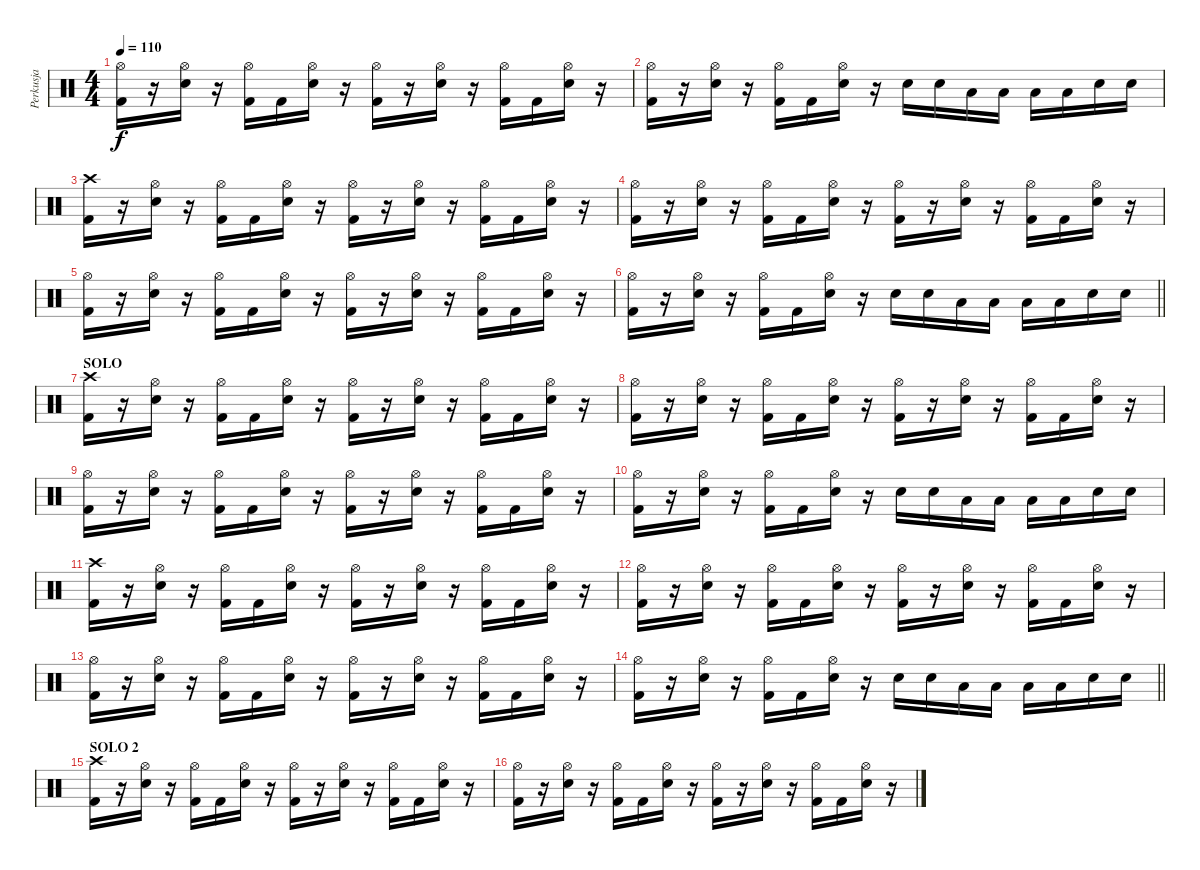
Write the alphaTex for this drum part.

\track ("Perkusja" "Perkusja") {instrument percussion}
\staff {score}
\articulation defaults
\ts (4 4)
\tempo 110
\clef neutral
\ks c
("Hi-Hat (open)" "Kick (hit) 2").16{dy f} r.16 ("Hi-Hat (open)" "Snare (hit) 2").16 r.16 ("Hi-Hat (open)" "Kick (hit) 2").16 "Kick (hit) 2".16 ("Hi-Hat (open)" "Snare (hit) 2").16 r.16 ("Hi-Hat (open)" "Kick (hit) 2").16 r.16 ("Hi-Hat (open)" "Snare (hit) 2").16 r.16 ("Hi-Hat (open)" "Kick (hit) 2").16 "Kick (hit) 2".16 ("Hi-Hat (open)" "Snare (hit) 2").16 r.16 |
("Hi-Hat (open)" "Kick (hit) 2").16 r.16 ("Hi-Hat (open)" "Snare (hit) 2").16 r.16 ("Hi-Hat (open)" "Kick (hit) 2").16 "Kick (hit) 2".16 ("Hi-Hat (open)" "Snare (hit) 2").16 r.16 "Snare (hit) 2".16 "Snare (hit) 2".16 "Low Tom (hit)".16 "Low Tom (hit)".16 "Low Tom (hit)".16 "Low Tom (hit)".16 "Snare (hit) 2".16 "Snare (hit) 2".16 |
("Crash high (hit)" "Kick (hit) 2").16 r.16 ("Hi-Hat (open)" "Snare (hit) 2").16 r.16 ("Hi-Hat (open)" "Kick (hit) 2").16 "Kick (hit) 2".16 ("Hi-Hat (open)" "Snare (hit) 2").16 r.16 ("Hi-Hat (open)" "Kick (hit) 2").16 r.16 ("Hi-Hat (open)" "Snare (hit) 2").16 r.16 ("Hi-Hat (open)" "Kick (hit) 2").16 "Kick (hit) 2".16 ("Hi-Hat (open)" "Snare (hit) 2").16 r.16 |
("Hi-Hat (open)" "Kick (hit) 2").16 r.16 ("Hi-Hat (open)" "Snare (hit) 2").16 r.16 ("Hi-Hat (open)" "Kick (hit) 2").16 "Kick (hit) 2".16 ("Hi-Hat (open)" "Snare (hit) 2").16 r.16 ("Hi-Hat (open)" "Kick (hit) 2").16 r.16 ("Hi-Hat (open)" "Snare (hit) 2").16 r.16 ("Hi-Hat (open)" "Kick (hit) 2").16 "Kick (hit) 2".16 ("Hi-Hat (open)" "Snare (hit) 2").16 r.16 |
("Hi-Hat (open)" "Kick (hit) 2").16 r.16 ("Hi-Hat (open)" "Snare (hit) 2").16 r.16 ("Hi-Hat (open)" "Kick (hit) 2").16 "Kick (hit) 2".16 ("Hi-Hat (open)" "Snare (hit) 2").16 r.16 ("Hi-Hat (open)" "Kick (hit) 2").16 r.16 ("Hi-Hat (open)" "Snare (hit) 2").16 r.16 ("Hi-Hat (open)" "Kick (hit) 2").16 "Kick (hit) 2".16 ("Hi-Hat (open)" "Snare (hit) 2").16 r.16 |
\barLineRight lightlight
("Hi-Hat (open)" "Kick (hit) 2").16 r.16 ("Hi-Hat (open)" "Snare (hit) 2").16 r.16 ("Hi-Hat (open)" "Kick (hit) 2").16 "Kick (hit) 2".16 ("Hi-Hat (open)" "Snare (hit) 2").16 r.16 "Snare (hit) 2".16 "Snare (hit) 2".16 "Low Tom (hit)".16 "Low Tom (hit)".16 "Low Tom (hit)".16 "Low Tom (hit)".16 "Snare (hit) 2".16 "Snare (hit) 2".16 |
\section ("" "SOLO")
("Crash high (hit)" "Kick (hit) 2").16 r.16 ("Hi-Hat (open)" "Snare (hit) 2").16 r.16 ("Hi-Hat (open)" "Kick (hit) 2").16 "Kick (hit) 2".16 ("Hi-Hat (open)" "Snare (hit) 2").16 r.16 ("Hi-Hat (open)" "Kick (hit) 2").16 r.16 ("Hi-Hat (open)" "Snare (hit) 2").16 r.16 ("Hi-Hat (open)" "Kick (hit) 2").16 "Kick (hit) 2".16 ("Hi-Hat (open)" "Snare (hit) 2").16 r.16 |
("Hi-Hat (open)" "Kick (hit) 2").16 r.16 ("Hi-Hat (open)" "Snare (hit) 2").16 r.16 ("Hi-Hat (open)" "Kick (hit) 2").16 "Kick (hit) 2".16 ("Hi-Hat (open)" "Snare (hit) 2").16 r.16 ("Hi-Hat (open)" "Kick (hit) 2").16 r.16 ("Hi-Hat (open)" "Snare (hit) 2").16 r.16 ("Hi-Hat (open)" "Kick (hit) 2").16 "Kick (hit) 2".16 ("Hi-Hat (open)" "Snare (hit) 2").16 r.16 |
("Hi-Hat (open)" "Kick (hit) 2").16 r.16 ("Hi-Hat (open)" "Snare (hit) 2").16 r.16 ("Hi-Hat (open)" "Kick (hit) 2").16 "Kick (hit) 2".16 ("Hi-Hat (open)" "Snare (hit) 2").16 r.16 ("Hi-Hat (open)" "Kick (hit) 2").16 r.16 ("Hi-Hat (open)" "Snare (hit) 2").16 r.16 ("Hi-Hat (open)" "Kick (hit) 2").16 "Kick (hit) 2".16 ("Hi-Hat (open)" "Snare (hit) 2").16 r.16 |
("Hi-Hat (open)" "Kick (hit) 2").16 r.16 ("Hi-Hat (open)" "Snare (hit) 2").16 r.16 ("Hi-Hat (open)" "Kick (hit) 2").16 "Kick (hit) 2".16 ("Hi-Hat (open)" "Snare (hit) 2").16 r.16 "Snare (hit) 2".16 "Snare (hit) 2".16 "Low Tom (hit)".16 "Low Tom (hit)".16 "Low Tom (hit)".16 "Low Tom (hit)".16 "Snare (hit) 2".16 "Snare (hit) 2".16 |
("Crash high (hit)" "Kick (hit) 2").16 r.16 ("Hi-Hat (open)" "Snare (hit) 2").16 r.16 ("Hi-Hat (open)" "Kick (hit) 2").16 "Kick (hit) 2".16 ("Hi-Hat (open)" "Snare (hit) 2").16 r.16 ("Hi-Hat (open)" "Kick (hit) 2").16 r.16 ("Hi-Hat (open)" "Snare (hit) 2").16 r.16 ("Hi-Hat (open)" "Kick (hit) 2").16 "Kick (hit) 2".16 ("Hi-Hat (open)" "Snare (hit) 2").16 r.16 |
("Hi-Hat (open)" "Kick (hit) 2").16 r.16 ("Hi-Hat (open)" "Snare (hit) 2").16 r.16 ("Hi-Hat (open)" "Kick (hit) 2").16 "Kick (hit) 2".16 ("Hi-Hat (open)" "Snare (hit) 2").16 r.16 ("Hi-Hat (open)" "Kick (hit) 2").16 r.16 ("Hi-Hat (open)" "Snare (hit) 2").16 r.16 ("Hi-Hat (open)" "Kick (hit) 2").16 "Kick (hit) 2".16 ("Hi-Hat (open)" "Snare (hit) 2").16 r.16 |
("Hi-Hat (open)" "Kick (hit) 2").16 r.16 ("Hi-Hat (open)" "Snare (hit) 2").16 r.16 ("Hi-Hat (open)" "Kick (hit) 2").16 "Kick (hit) 2".16 ("Hi-Hat (open)" "Snare (hit) 2").16 r.16 ("Hi-Hat (open)" "Kick (hit) 2").16 r.16 ("Hi-Hat (open)" "Snare (hit) 2").16 r.16 ("Hi-Hat (open)" "Kick (hit) 2").16 "Kick (hit) 2".16 ("Hi-Hat (open)" "Snare (hit) 2").16 r.16 |
\barLineRight lightlight
("Hi-Hat (open)" "Kick (hit) 2").16 r.16 ("Hi-Hat (open)" "Snare (hit) 2").16 r.16 ("Hi-Hat (open)" "Kick (hit) 2").16 "Kick (hit) 2".16 ("Hi-Hat (open)" "Snare (hit) 2").16 r.16 "Snare (hit) 2".16 "Snare (hit) 2".16 "Low Tom (hit)".16 "Low Tom (hit)".16 "Low Tom (hit)".16 "Low Tom (hit)".16 "Snare (hit) 2".16 "Snare (hit) 2".16 |
\section ("" "SOLO 2")
("Crash high (hit)" "Kick (hit) 2").16 r.16 ("Hi-Hat (open)" "Snare (hit) 2").16 r.16 ("Hi-Hat (open)" "Kick (hit) 2").16 "Kick (hit) 2".16 ("Hi-Hat (open)" "Snare (hit) 2").16 r.16 ("Hi-Hat (open)" "Kick (hit) 2").16 r.16 ("Hi-Hat (open)" "Snare (hit) 2").16 r.16 ("Hi-Hat (open)" "Kick (hit) 2").16 "Kick (hit) 2".16 ("Hi-Hat (open)" "Snare (hit) 2").16 r.16 |
("Hi-Hat (open)" "Kick (hit) 2").16 r.16 ("Hi-Hat (open)" "Snare (hit) 2").16 r.16 ("Hi-Hat (open)" "Kick (hit) 2").16 "Kick (hit) 2".16 ("Hi-Hat (open)" "Snare (hit) 2").16 r.16 ("Hi-Hat (open)" "Kick (hit) 2").16 r.16 ("Hi-Hat (open)" "Snare (hit) 2").16 r.16 ("Hi-Hat (open)" "Kick (hit) 2").16 "Kick (hit) 2".16 ("Hi-Hat (open)" "Snare (hit) 2").16 r.16
